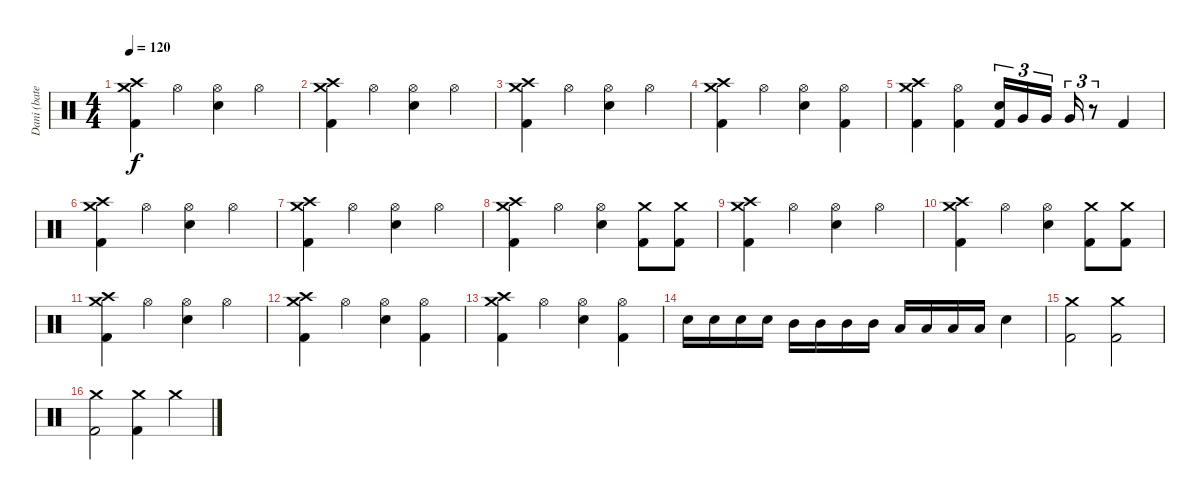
\track ("Dani (batería)" "Dani (bate") {instrument percussion}
\staff {score}
\articulation defaults
\ts (4 4)
\tempo 120
\clef neutral
\ks c
("Crash high (hit)" "Crash medium (hit)" "Kick (hit) 2").4{dy f} "Hi-Hat (open)".4 ("Hi-Hat (open)" "Electric Snare (hit)").4 "Hi-Hat (open)".4 |
("Crash high (hit)" "Crash medium (hit)" "Kick (hit) 2").4 "Hi-Hat (open)".4 ("Hi-Hat (open)" "Electric Snare (hit)").4 "Hi-Hat (open)".4 |
("Crash high (hit)" "Crash medium (hit)" "Kick (hit) 2").4 "Hi-Hat (open)".4 ("Hi-Hat (open)" "Electric Snare (hit)").4 "Hi-Hat (open)".4 |
("Crash high (hit)" "Crash medium (hit)" "Kick (hit) 2").4 "Hi-Hat (open)".4 ("Hi-Hat (open)" "Electric Snare (hit)").4 ("Hi-Hat (open)" "Kick (hit) 2").4 |
("Crash high (hit)" "Crash medium (hit)" "Kick (hit) 2").4 ("Hi-Hat (open)" "Kick (hit) 2").4 ("Electric Snare (hit)" "Kick (hit) 2").16{tu (3 2)} "Very Low Tom (hit)".16{tu (3 2)} "Very Low Tom (hit)".16{tu (3 2)} "Very Low Tom (hit)".16{tu (3 2)} r.8{tu (3 2)} "Kick (hit) 2".4 |
("Crash high (hit)" "Crash medium (hit)" "Kick (hit) 2").4 "Hi-Hat (open)".4 ("Hi-Hat (open)" "Electric Snare (hit)").4 "Hi-Hat (open)".4 |
("Crash high (hit)" "Crash medium (hit)" "Kick (hit) 2").4 "Hi-Hat (open)".4 ("Hi-Hat (open)" "Electric Snare (hit)").4 "Hi-Hat (open)".4 |
("Crash high (hit)" "Crash medium (hit)" "Kick (hit) 2").4 "Hi-Hat (open)".4 ("Hi-Hat (open)" "Electric Snare (hit)").4 ("Crash medium (hit)" "Kick (hit) 2").8 ("Crash medium (hit)" "Kick (hit) 2").8 |
("Crash high (hit)" "Crash medium (hit)" "Kick (hit) 2").4 "Hi-Hat (open)".4 ("Hi-Hat (open)" "Electric Snare (hit)").4 "Hi-Hat (open)".4 |
("Crash high (hit)" "Crash medium (hit)" "Kick (hit) 2").4 "Hi-Hat (open)".4 ("Hi-Hat (open)" "Electric Snare (hit)").4 ("Crash medium (hit)" "Kick (hit) 2").8 ("Crash medium (hit)" "Kick (hit) 2").8 |
("Crash high (hit)" "Crash medium (hit)" "Kick (hit) 2").4 "Hi-Hat (open)".4 ("Hi-Hat (open)" "Electric Snare (hit)").4 "Hi-Hat (open)".4 |
("Crash high (hit)" "Crash medium (hit)" "Kick (hit) 2").4 "Hi-Hat (open)".4 ("Hi-Hat (open)" "Electric Snare (hit)").4 ("Hi-Hat (open)" "Kick (hit) 2").4 |
("Crash high (hit)" "Crash medium (hit)" "Kick (hit) 2").4 "Hi-Hat (open)".4 ("Hi-Hat (open)" "Electric Snare (hit)").4 ("Hi-Hat (open)" "Kick (hit) 2").4 |
"Electric Snare (hit)".16 "Electric Snare (hit)".16 "Electric Snare (hit)".16 "Electric Snare (hit)".16 "Mid Tom (hit)".16 "Mid Tom (hit)".16 "Mid Tom (hit)".16 "Mid Tom (hit)".16 "Low Tom (hit)".16 "Low Tom (hit)".16 "Low Tom (hit)".16 "Low Tom (hit)".16 "Electric Snare (hit)".4 |
("Crash medium (hit)" "Kick (hit) 2").2 ("Crash medium (hit)" "Kick (hit) 2").2 |
("Crash medium (hit)" "Kick (hit) 2").2 ("Crash medium (hit)" "Kick (hit) 2").4 "Crash medium (hit)".4
